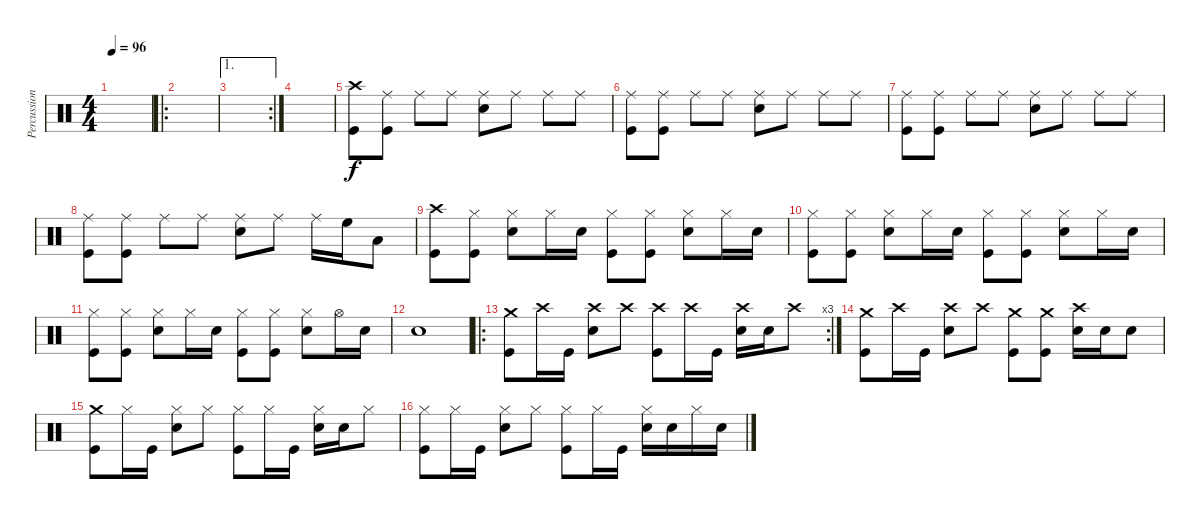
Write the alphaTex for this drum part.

\track ("Percussions" "Percussion") {instrument percussion}
\staff {score}
\articulation defaults
\ts (4 4)
\tempo 96
\clef neutral
\ks c
|
\ro
|
\ae 1
\rc 2
|
|
("Crash high (hit)" "Kick (hit)").8 ("Ride (middle)" "Kick (hit)").8 "Ride (middle)".8 "Ride (middle)".8 ("Ride (middle)" "Snare (hit) 2").8 "Ride (middle)".8 "Ride (middle)".8 "Ride (middle)".8 |
("Ride (middle)" "Kick (hit)").8 ("Ride (middle)" "Kick (hit)").8 "Ride (middle)".8 "Ride (middle)".8 ("Ride (middle)" "Snare (hit) 2").8 "Ride (middle)".8 "Ride (middle)".8 "Ride (middle)".8 |
("Ride (middle)" "Kick (hit)").8 ("Ride (middle)" "Kick (hit)").8 "Ride (middle)".8 "Ride (middle)".8 ("Ride (middle)" "Snare (hit) 2").8 "Ride (middle)".8 "Ride (middle)".8 "Ride (middle)".8 |
("Ride (middle)" "Kick (hit)").8 ("Ride (middle)" "Kick (hit)").8 "Ride (middle)".8 "Ride (middle)".8 ("Ride (middle)" "Snare (hit) 2").8 "Ride (middle)".8 "Ride (middle)".16 "High Floor Tom (hit)".16 "Low Tom (hit)".8 |
("Crash high (hit)" "Kick (hit)").8 ("Hi-Hat (closed)" "Kick (hit)").8 ("Hi-Hat (closed)" "Snare (hit) 2").8 "Hi-Hat (closed)".16 "Snare (hit) 2".16 ("Hi-Hat (closed)" "Kick (hit)").8 ("Hi-Hat (closed)" "Kick (hit)").8 ("Hi-Hat (closed)" "Snare (hit) 2").8 "Hi-Hat (closed)".16 "Snare (hit) 2".16 |
("Hi-Hat (closed)" "Kick (hit)").8 ("Hi-Hat (closed)" "Kick (hit)").8 ("Hi-Hat (closed)" "Snare (hit) 2").8 "Hi-Hat (closed)".16 "Snare (hit) 2".16 ("Hi-Hat (closed)" "Kick (hit)").8 ("Hi-Hat (closed)" "Kick (hit)").8 ("Hi-Hat (closed)" "Snare (hit) 2").8 "Hi-Hat (closed)".16 "Snare (hit) 2".16 |
("Hi-Hat (closed)" "Kick (hit)").8 ("Hi-Hat (closed)" "Kick (hit)").8 ("Hi-Hat (closed)" "Snare (hit) 2").8 "Hi-Hat (closed)".16 "Snare (hit) 2".16 ("Hi-Hat (closed)" "Kick (hit)").8 ("Hi-Hat (closed)" "Kick (hit)").8 ("Hi-Hat (closed)" "Snare (hit) 2").8 "Hi-Hat (open)".16 "Snare (hit) 2".16 |
"Snare (hit) 2".1 |
\ro
\rc 3
("Crash medium (hit)" "Kick (hit)").8 "Crash high (hit)".16 "Kick (hit)".16 ("Crash high (hit)" "Snare (hit) 2").8 "Crash high (hit)".8 ("Crash high (hit)" "Kick (hit)").8 "Crash high (hit)".16 "Kick (hit)".16 ("Crash high (hit)" "Snare (hit) 2").16 "Snare (hit) 2".16 "Crash high (hit)".8 |
("Crash medium (hit)" "Kick (hit)").8 "Crash high (hit)".16 "Kick (hit)".16 ("Crash high (hit)" "Snare (hit) 2").8 "Crash high (hit)".8 ("Crash medium (hit)" "Kick (hit)").8 ("Crash medium (hit)" "Kick (hit)").8 ("Crash high (hit)" "Snare (hit) 2").16 "Snare (hit) 2".16 "Snare (hit) 2".8 |
("Crash medium (hit)" "Kick (hit)").8 "Hi-Hat (closed)".16 "Kick (hit)".16 ("Hi-Hat (closed)" "Snare (hit) 2").8 "Hi-Hat (closed)".8 ("Hi-Hat (closed)" "Kick (hit)").8 "Hi-Hat (closed)".16 "Kick (hit)".16 ("Hi-Hat (closed)" "Snare (hit) 2").16 "Snare (hit) 2".16 "Hi-Hat (closed)".8 |
("Hi-Hat (closed)" "Kick (hit)").8 "Hi-Hat (closed)".16 "Kick (hit)".16 ("Hi-Hat (closed)" "Snare (hit) 2").8 "Hi-Hat (closed)".8 ("Hi-Hat (closed)" "Kick (hit)").8 "Hi-Hat (closed)".16 "Kick (hit)".16 ("Hi-Hat (closed)" "Snare (hit) 2").16 "Snare (hit) 2".16 "Hi-Hat (closed)".16 "Snare (hit) 2".16
